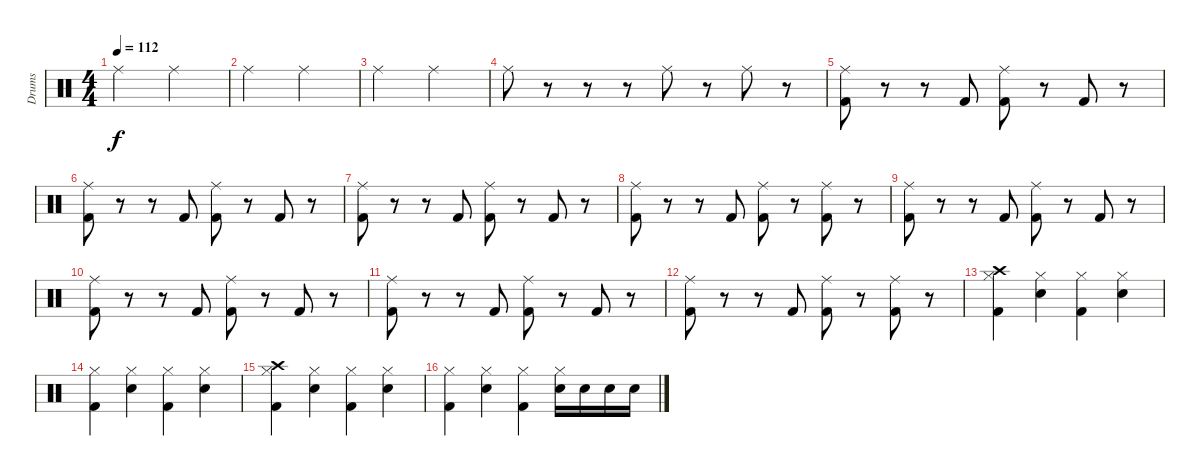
\track ("Drums" "Drums") {instrument percussion}
\staff {score}
\articulation defaults
\ts (4 4)
\tempo 112
\clef neutral
\ks c "Ride (middle)".2{dy f} "Ride (middle)".2
|
"Ride (middle)".2 "Ride (middle)".2 |
"Ride (middle)".2 "Ride (middle)".2 |
"Ride (middle)".8 r.8 r.8 r.8 "Ride (middle)".8 r.8 "Ride (middle)".8 r.8 |
("Ride (middle)" "Kick (hit) 2").8 r.8 r.8 "Kick (hit) 2".8 ("Ride (middle)" "Kick (hit) 2").8 r.8 "Kick (hit) 2".8 r.8 |
("Ride (middle)" "Kick (hit) 2").8 r.8 r.8 "Kick (hit) 2".8 ("Ride (middle)" "Kick (hit) 2").8 r.8 "Kick (hit) 2".8 r.8 |
("Ride (middle)" "Kick (hit) 2").8 r.8 r.8 "Kick (hit) 2".8 ("Ride (middle)" "Kick (hit) 2").8 r.8 "Kick (hit) 2".8 r.8 |
("Ride (middle)" "Kick (hit) 2").8 r.8 r.8 "Kick (hit) 2".8 ("Ride (middle)" "Kick (hit) 2").8 r.8 ("Ride (middle)" "Kick (hit) 2").8 r.8 |
("Ride (middle)" "Kick (hit) 2").8 r.8 r.8 "Kick (hit) 2".8 ("Ride (middle)" "Kick (hit) 2").8 r.8 "Kick (hit) 2".8 r.8 |
("Ride (middle)" "Kick (hit) 2").8 r.8 r.8 "Kick (hit) 2".8 ("Ride (middle)" "Kick (hit) 2").8 r.8 "Kick (hit) 2".8 r.8 |
("Ride (middle)" "Kick (hit) 2").8 r.8 r.8 "Kick (hit) 2".8 ("Ride (middle)" "Kick (hit) 2").8 r.8 "Kick (hit) 2".8 r.8 |
("Ride (middle)" "Kick (hit) 2").8 r.8 r.8 "Kick (hit) 2".8 ("Ride (middle)" "Kick (hit) 2").8 r.8 ("Ride (middle)" "Kick (hit) 2").8 r.8 |
("Crash high (hit)" "Hi-Hat (closed)" "Kick (hit) 2").4 ("Hi-Hat (closed)" "Snare (hit) 2").4 ("Hi-Hat (closed)" "Kick (hit) 2").4 ("Hi-Hat (closed)" "Snare (hit) 2").4 |
("Hi-Hat (closed)" "Kick (hit) 2").4 ("Hi-Hat (closed)" "Snare (hit) 2").4 ("Hi-Hat (closed)" "Kick (hit) 2").4 ("Hi-Hat (closed)" "Snare (hit) 2").4 |
("Crash high (hit)" "Hi-Hat (closed)" "Kick (hit) 2").4 ("Hi-Hat (closed)" "Snare (hit) 2").4 ("Hi-Hat (closed)" "Kick (hit) 2").4 ("Hi-Hat (closed)" "Snare (hit) 2").4 |
("Hi-Hat (closed)" "Kick (hit) 2").4 ("Hi-Hat (closed)" "Snare (hit) 2").4 ("Hi-Hat (closed)" "Kick (hit) 2").4 ("Hi-Hat (closed)" "Snare (hit) 2").16 "Snare (hit) 2".16 "Snare (hit) 2".16 "Snare (hit) 2".16
